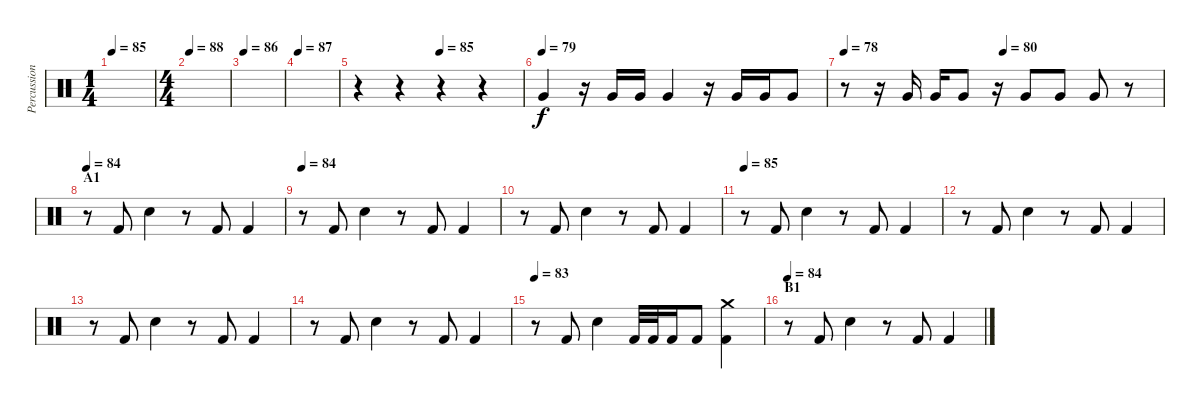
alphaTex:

\track ("Percussion" "Percussion") {instrument percussion}
\staff {score}
\articulation defaults
\ts (1 4)
\tempo 85
\tempo 180
\tempo 85
\clef neutral
\ks c
|
\ts (4 4)
\tempo 88
|
\tempo 86
|
\tempo 87
|
\tempo (85 0.5)
r.4 r.4 r.4 r.4 |
\tempo (79)
"Very Low Tom (hit)".4 r.16 "Very Low Tom (hit)".16 "Very Low Tom (hit)".16 "Very Low Tom (hit)".4 r.16 "Very Low Tom (hit)".16 "Very Low Tom (hit)".16 "Very Low Tom (hit)".8 |
\tempo 78
\tempo (80 0.5)
r.8 r.16 "Very Low Tom (hit)".16 "Very Low Tom (hit)".16 "Very Low Tom (hit)".8 r.16 "Very Low Tom (hit)".8 "Very Low Tom (hit)".8 "Very Low Tom (hit)".8 r.8 |
\section ("" "A1")
\tempo 84
r.8 "Kick (hit) 2".8 "Electric Snare (hit)".4 r.8 "Kick (hit) 2".8 "Kick (hit) 2".4 |
\tempo 84
r.8 "Kick (hit) 2".8 "Electric Snare (hit)".4 r.8 "Kick (hit) 2".8 "Kick (hit) 2".4 |
r.8 "Kick (hit) 2".8 "Electric Snare (hit)".4 r.8 "Kick (hit) 2".8 "Kick (hit) 2".4 |
\tempo 85
r.8 "Kick (hit) 2".8 "Electric Snare (hit)".4 r.8 "Kick (hit) 2".8 "Kick (hit) 2".4 |
r.8 "Kick (hit) 2".8 "Electric Snare (hit)".4 r.8 "Kick (hit) 2".8 "Kick (hit) 2".4 |
r.8 "Kick (hit) 2".8 "Electric Snare (hit)".4 r.8 "Kick (hit) 2".8 "Kick (hit) 2".4 |
r.8 "Kick (hit) 2".8 "Electric Snare (hit)".4 r.8 "Kick (hit) 2".8 "Kick (hit) 2".4 |
\tempo 83
r.8 "Kick (hit) 2".8 "Electric Snare (hit)".4 "Kick (hit) 2".32 "Kick (hit) 2".32 "Kick (hit) 2".16 "Kick (hit) 2".8 ("Kick (hit) 2" "Crash medium (hit)").4 |
\section ("" "B1")
\tempo 84
r.8 "Kick (hit) 2".8 "Electric Snare (hit)".4 r.8 "Kick (hit) 2".8 "Kick (hit) 2".4
